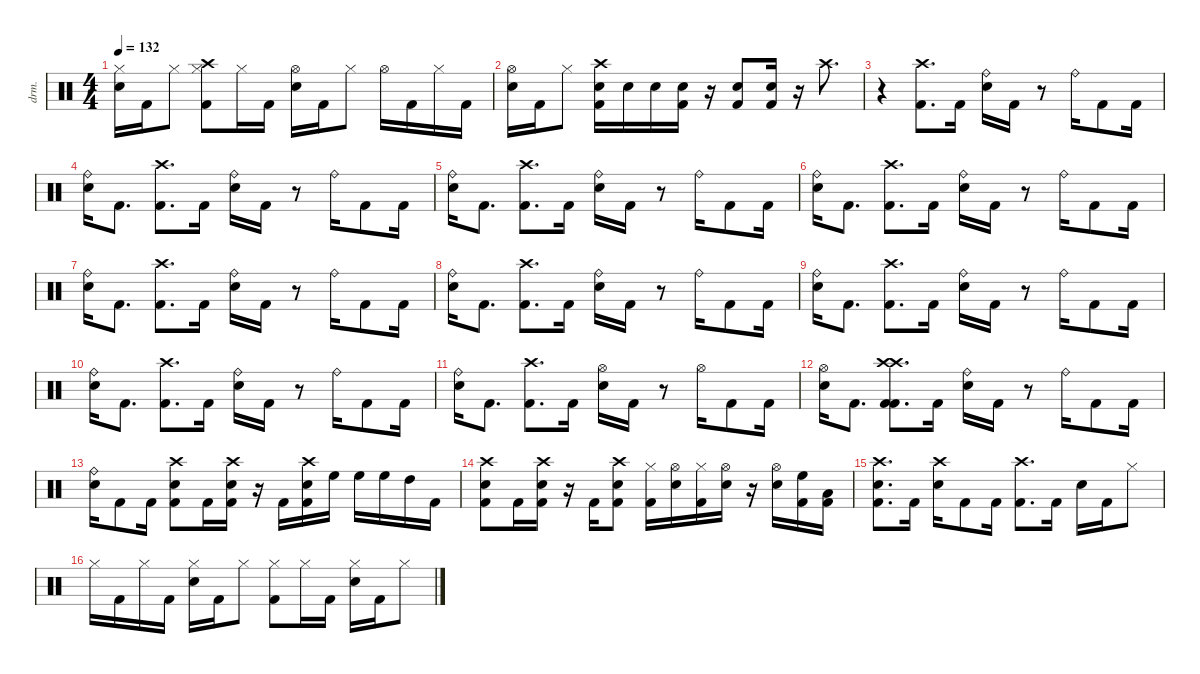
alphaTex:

\defaultSystemsLayout 4
\hideDynamics
\bracketExtendMode nobrackets
\track ("drums" "drm.") {instrument percussion}
\staff {score}
\articulation defaults
\ts (4 4)
\tempo 132
\clef neutral
\ks c
("Snare (hit) 2" "Hi-Hat (closed)").16{dy fff} "Kick (hit) 2".16 "Hi-Hat (closed)".8 ("Kick (hit) 2" "Crash high (hit)" "Hi-Hat (closed)").8 "Hi-Hat (closed)".16 "Kick (hit) 2".16 ("Snare (hit) 2" "Hi-Hat (open)").16 "Kick (hit) 2".16 "Hi-Hat (closed)".8 "Hi-Hat (open)".16 "Kick (hit) 2".16 "Hi-Hat (closed)".16 "Kick (hit) 2".16 |
("Snare (hit) 2" "Hi-Hat (open)").16 "Kick (hit) 2".16 "Hi-Hat (closed)".8 ("Kick (hit) 2" "Snare (hit) 2" "Crash high (hit)").16 "Snare (hit) 2".16 "Snare (hit) 2".16 ("Kick (hit) 2" "Snare (hit) 2").16 r.16 ("Kick (hit) 2" "Snare (hit) 2").8 ("Kick (hit) 2" "Snare (hit) 2").16 r.16 "Crash high (hit)".8{d} |
r.4 ("Kick (hit) 2" "Crash high (hit)").8{d} "Kick (hit) 2".16 ("Snare (hit) 2" "Ride (bell)").16 "Kick (hit) 2".16 r.8 "Ride (bell)".16 "Kick (hit) 2".8 "Kick (hit) 2".16 |
("Snare (hit) 2" "Ride (bell)").16 "Kick (hit) 2".8{d} ("Kick (hit) 2" "Crash high (hit)").8{d} "Kick (hit) 2".16 ("Snare (hit) 2" "Ride (bell)").16 "Kick (hit) 2".16 r.8 "Ride (bell)".16 "Kick (hit) 2".8 "Kick (hit) 2".16 |
("Snare (hit) 2" "Ride (bell)").16 "Kick (hit) 2".8{d} ("Kick (hit) 2" "Crash high (hit)").8{d} "Kick (hit) 2".16 ("Snare (hit) 2" "Ride (bell)").16 "Kick (hit) 2".16 r.8 "Ride (bell)".16 "Kick (hit) 2".8 "Kick (hit) 2".16 |
("Snare (hit) 2" "Ride (bell)").16 "Kick (hit) 2".8{d} ("Kick (hit) 2" "Crash high (hit)").8{d} "Kick (hit) 2".16 ("Snare (hit) 2" "Ride (bell)").16 "Kick (hit) 2".16 r.8 "Ride (bell)".16 "Kick (hit) 2".8 "Kick (hit) 2".16 |
("Snare (hit) 2" "Ride (bell)").16 "Kick (hit) 2".8{d} ("Kick (hit) 2" "Crash high (hit)").8{d} "Kick (hit) 2".16 ("Snare (hit) 2" "Ride (bell)").16 "Kick (hit) 2".16 r.8 "Ride (bell)".16 "Kick (hit) 2".8 "Kick (hit) 2".16 |
("Snare (hit) 2" "Ride (bell)").16 "Kick (hit) 2".8{d} ("Kick (hit) 2" "Crash high (hit)").8{d} "Kick (hit) 2".16 ("Snare (hit) 2" "Ride (bell)").16 "Kick (hit) 2".16 r.8 "Ride (bell)".16 "Kick (hit) 2".8 "Kick (hit) 2".16 |
("Snare (hit) 2" "Ride (bell)").16 "Kick (hit) 2".8{d} ("Kick (hit) 2" "Crash high (hit)").8{d} "Kick (hit) 2".16 ("Snare (hit) 2" "Ride (bell)").16 "Kick (hit) 2".16 r.8 "Ride (bell)".16 "Kick (hit) 2".8 "Kick (hit) 2".16 |
("Snare (hit) 2" "Ride (bell)").16 "Kick (hit) 2".8{d} ("Kick (hit) 2" "Crash high (hit)").8{d} "Kick (hit) 2".16 ("Snare (hit) 2" "Ride (bell)").16 "Kick (hit) 2".16 r.8 "Ride (bell)".16 "Kick (hit) 2".8 "Kick (hit) 2".16 |
("Snare (hit) 2" "Ride (bell)").16 "Kick (hit) 2".8{d} ("Kick (hit) 2" "Crash high (hit)").8{d} "Kick (hit) 2".16 ("Snare (hit) 2" "Hi-Hat (open)").16 "Kick (hit) 2".16 r.8 "Hi-Hat (open)".16 "Kick (hit) 2".8 "Kick (hit) 2".16 |
("Snare (hit) 2" "Hi-Hat (open)").16 "Kick (hit) 2".8{d} ("Kick (hit) 2" "Crash high (hit)" "Kick (hit) 2" "Crash high (hit)").8{d} "Kick (hit) 2".16 ("Snare (hit) 2" "Ride (bell)").16 "Kick (hit) 2".16 r.8 "Ride (bell)".16 "Kick (hit) 2".8 "Kick (hit) 2".16 |
("Snare (hit) 2" "Ride (bell)").16 "Kick (hit) 2".8 "Kick (hit) 2".16 ("Kick (hit) 2" "Snare (hit) 2" "Crash high (hit)").8 "Kick (hit) 2".16 ("Kick (hit) 2" "Snare (hit) 2" "Crash high (hit)").16 r.16 "Kick (hit) 2".16 ("Kick (hit) 2" "Snare (hit) 2" "Crash high (hit)").16 "High Floor Tom (hit)".16 "High Floor Tom (hit)".16 "High Floor Tom (hit)".16 "High Tom (hit)".16 "Kick (hit) 2".16 |
("Kick (hit) 2" "Snare (hit) 2" "Crash high (hit)").8 "Kick (hit) 2".16 ("Kick (hit) 2" "Snare (hit) 2" "Crash high (hit)").16 r.16 "Kick (hit) 2".16 ("Kick (hit) 2" "Snare (hit) 2" "Crash high (hit)").8 ("Kick (hit) 2" "Hi-Hat (closed)").16 ("Snare (hit) 2" "Hi-Hat (open)").16 ("Kick (hit) 2" "Hi-Hat (closed)").16 ("Snare (hit) 2" "Hi-Hat (open)").16 r.16 ("Snare (hit) 2" "Hi-Hat (open)").16 ("Kick (hit) 2" "High Floor Tom (hit)").16 ("Kick (hit) 2" "Low Tom (hit)").16 |
("Kick (hit) 2" "Snare (hit) 2" "Crash high (hit)").8{d} "Kick (hit) 2".16 ("Snare (hit) 2" "Crash high (hit)").16 "Kick (hit) 2".8 "Kick (hit) 2".16 ("Kick (hit) 2" "Crash high (hit)").8{d} "Kick (hit) 2".16 "Snare (hit) 2".16 "Kick (hit) 2".16 "Hi-Hat (closed)".8 |
"Hi-Hat (closed)".16 "Kick (hit) 2".16 "Hi-Hat (closed)".16 "Kick (hit) 2".16 ("Snare (hit) 2" "Hi-Hat (closed)").16 "Kick (hit) 2".16 "Hi-Hat (closed)".8 ("Kick (hit) 2" "Hi-Hat (closed)").8 "Hi-Hat (closed)".16 "Kick (hit) 2".16 ("Snare (hit) 2" "Hi-Hat (closed)").16 "Kick (hit) 2".16 "Hi-Hat (closed)".8
